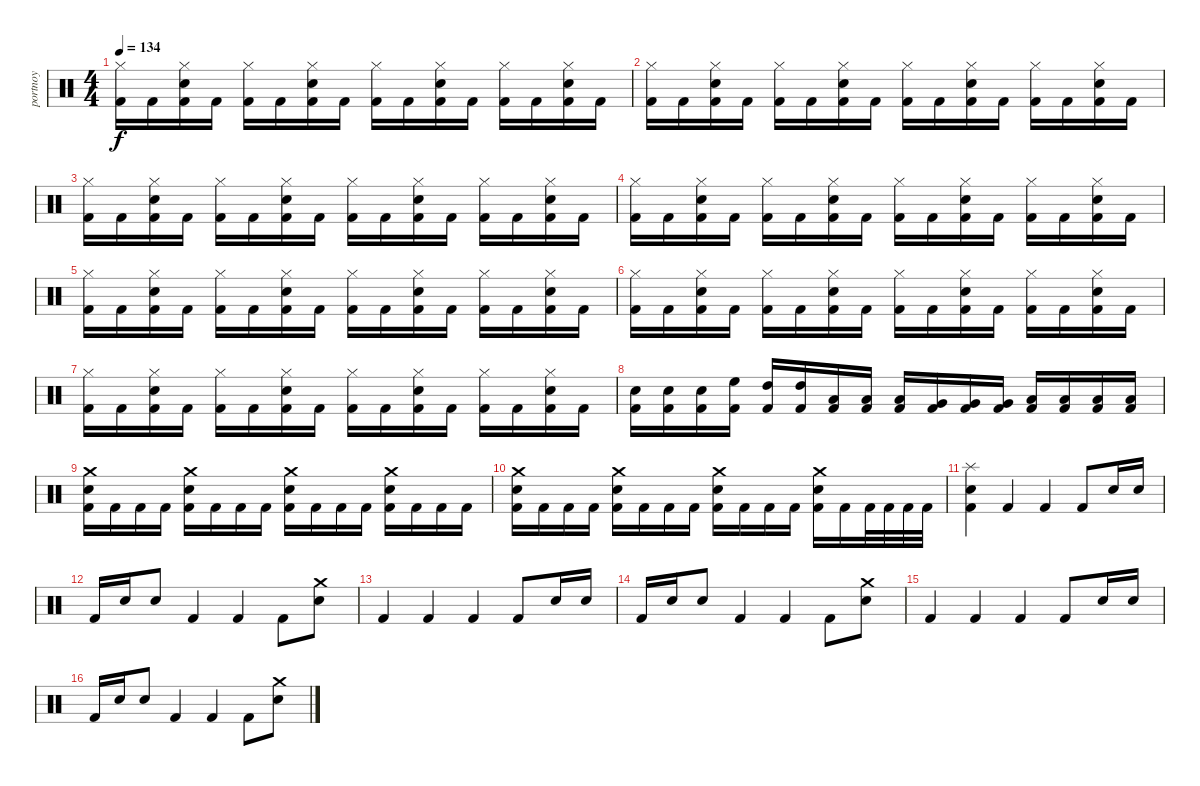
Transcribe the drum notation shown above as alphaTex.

\track ("portnoy" "portnoy") {instrument percussion}
\staff {score}
\articulation defaults
\ts (4 4)
\tempo 134
\clef neutral
\ks c
("Hi-Hat (closed)" "Kick (hit) 2").16{dy f} "Kick (hit) 2".16 ("Hi-Hat (closed)" "Snare (hit) 2" "Kick (hit) 2").16 "Kick (hit) 2".16 ("Hi-Hat (closed)" "Kick (hit) 2").16 "Kick (hit) 2".16 ("Hi-Hat (closed)" "Snare (hit) 2" "Kick (hit) 2").16 "Kick (hit) 2".16 ("Hi-Hat (closed)" "Kick (hit) 2").16 "Kick (hit) 2".16 ("Hi-Hat (closed)" "Snare (hit) 2" "Kick (hit) 2").16 "Kick (hit) 2".16 ("Hi-Hat (closed)" "Kick (hit) 2").16 "Kick (hit) 2".16 ("Hi-Hat (closed)" "Snare (hit) 2" "Kick (hit) 2").16 "Kick (hit) 2".16 |
("Hi-Hat (closed)" "Kick (hit) 2").16 "Kick (hit) 2".16 ("Hi-Hat (closed)" "Snare (hit) 2" "Kick (hit) 2").16 "Kick (hit) 2".16 ("Hi-Hat (closed)" "Kick (hit) 2").16 "Kick (hit) 2".16 ("Hi-Hat (closed)" "Snare (hit) 2" "Kick (hit) 2").16 "Kick (hit) 2".16 ("Hi-Hat (closed)" "Kick (hit) 2").16 "Kick (hit) 2".16 ("Hi-Hat (closed)" "Snare (hit) 2" "Kick (hit) 2").16 "Kick (hit) 2".16 ("Hi-Hat (closed)" "Kick (hit) 2").16 "Kick (hit) 2".16 ("Hi-Hat (closed)" "Snare (hit) 2" "Kick (hit) 2").16 "Kick (hit) 2".16 |
("Hi-Hat (closed)" "Kick (hit) 2").16 "Kick (hit) 2".16 ("Hi-Hat (closed)" "Snare (hit) 2" "Kick (hit) 2").16 "Kick (hit) 2".16 ("Hi-Hat (closed)" "Kick (hit) 2").16 "Kick (hit) 2".16 ("Hi-Hat (closed)" "Snare (hit) 2" "Kick (hit) 2").16 "Kick (hit) 2".16 ("Hi-Hat (closed)" "Kick (hit) 2").16 "Kick (hit) 2".16 ("Hi-Hat (closed)" "Snare (hit) 2" "Kick (hit) 2").16 "Kick (hit) 2".16 ("Hi-Hat (closed)" "Kick (hit) 2").16 "Kick (hit) 2".16 ("Hi-Hat (closed)" "Snare (hit) 2" "Kick (hit) 2").16 "Kick (hit) 2".16 |
("Hi-Hat (closed)" "Kick (hit) 2").16 "Kick (hit) 2".16 ("Hi-Hat (closed)" "Snare (hit) 2" "Kick (hit) 2").16 "Kick (hit) 2".16 ("Hi-Hat (closed)" "Kick (hit) 2").16 "Kick (hit) 2".16 ("Hi-Hat (closed)" "Snare (hit) 2" "Kick (hit) 2").16 "Kick (hit) 2".16 ("Hi-Hat (closed)" "Kick (hit) 2").16 "Kick (hit) 2".16 ("Hi-Hat (closed)" "Snare (hit) 2" "Kick (hit) 2").16 "Kick (hit) 2".16 ("Hi-Hat (closed)" "Kick (hit) 2").16 "Kick (hit) 2".16 ("Hi-Hat (closed)" "Snare (hit) 2" "Kick (hit) 2").16 "Kick (hit) 2".16 |
("Hi-Hat (closed)" "Kick (hit) 2").16 "Kick (hit) 2".16 ("Hi-Hat (closed)" "Snare (hit) 2" "Kick (hit) 2").16 "Kick (hit) 2".16 ("Hi-Hat (closed)" "Kick (hit) 2").16 "Kick (hit) 2".16 ("Hi-Hat (closed)" "Snare (hit) 2" "Kick (hit) 2").16 "Kick (hit) 2".16 ("Hi-Hat (closed)" "Kick (hit) 2").16 "Kick (hit) 2".16 ("Hi-Hat (closed)" "Snare (hit) 2" "Kick (hit) 2").16 "Kick (hit) 2".16 ("Hi-Hat (closed)" "Kick (hit) 2").16 "Kick (hit) 2".16 ("Hi-Hat (closed)" "Snare (hit) 2" "Kick (hit) 2").16 "Kick (hit) 2".16 |
("Hi-Hat (closed)" "Kick (hit) 2").16 "Kick (hit) 2".16 ("Hi-Hat (closed)" "Snare (hit) 2" "Kick (hit) 2").16 "Kick (hit) 2".16 ("Hi-Hat (closed)" "Kick (hit) 2").16 "Kick (hit) 2".16 ("Hi-Hat (closed)" "Snare (hit) 2" "Kick (hit) 2").16 "Kick (hit) 2".16 ("Hi-Hat (closed)" "Kick (hit) 2").16 "Kick (hit) 2".16 ("Hi-Hat (closed)" "Snare (hit) 2" "Kick (hit) 2").16 "Kick (hit) 2".16 ("Hi-Hat (closed)" "Kick (hit) 2").16 "Kick (hit) 2".16 ("Hi-Hat (closed)" "Snare (hit) 2" "Kick (hit) 2").16 "Kick (hit) 2".16 |
("Hi-Hat (closed)" "Kick (hit) 2").16 "Kick (hit) 2".16 ("Hi-Hat (closed)" "Snare (hit) 2" "Kick (hit) 2").16 "Kick (hit) 2".16 ("Hi-Hat (closed)" "Kick (hit) 2").16 "Kick (hit) 2".16 ("Hi-Hat (closed)" "Snare (hit) 2" "Kick (hit) 2").16 "Kick (hit) 2".16 ("Hi-Hat (closed)" "Kick (hit) 2").16 "Kick (hit) 2".16 ("Hi-Hat (closed)" "Snare (hit) 2" "Kick (hit) 2").16 "Kick (hit) 2".16 ("Hi-Hat (closed)" "Kick (hit) 2").16 "Kick (hit) 2".16 ("Hi-Hat (closed)" "Snare (hit) 2" "Kick (hit) 2").16 "Kick (hit) 2".16 |
("Snare (hit) 2" "Kick (hit) 2").16 ("Snare (hit) 2" "Kick (hit) 2").16 ("Snare (hit) 2" "Kick (hit) 2").16 ("High Floor Tom (hit)" "Kick (hit) 2").16 ("High Tom (hit)" "Kick (hit) 2").16 ("High Tom (hit)" "Kick (hit) 2").16 ("Low Tom (hit)" "Kick (hit) 2").16 ("Low Tom (hit)" "Kick (hit) 2").16 ("Low Tom (hit)" "Kick (hit) 2").16 ("Very Low Tom (hit)" "Kick (hit) 2").16 ("Very Low Tom (hit)" "Kick (hit) 2").16 ("Very Low Tom (hit)" "Kick (hit) 2").16 ("Low Floor Tom (hit)" "Kick (hit) 2").16 ("Low Floor Tom (hit)" "Kick (hit) 2").16 ("Low Floor Tom (hit)" "Kick (hit) 2").16 ("Low Floor Tom (hit)" "Kick (hit) 2").16 |
("Crash medium (hit)" "Snare (hit) 2" "Kick (hit) 2").16 "Kick (hit) 2".16 "Kick (hit) 2".16 "Kick (hit) 2".16 ("Crash medium (hit)" "Snare (hit) 2" "Kick (hit) 2").16 "Kick (hit) 2".16 "Kick (hit) 2".16 "Kick (hit) 2".16 ("Crash medium (hit)" "Snare (hit) 2" "Kick (hit) 2").16 "Kick (hit) 2".16 "Kick (hit) 2".16 "Kick (hit) 2".16 ("Crash medium (hit)" "Snare (hit) 2" "Kick (hit) 2").16 "Kick (hit) 2".16 "Kick (hit) 2".16 "Kick (hit) 2".16 |
("Crash medium (hit)" "Snare (hit) 2" "Kick (hit) 2").16 "Kick (hit) 2".16 "Kick (hit) 2".16 "Kick (hit) 2".16 ("Crash medium (hit)" "Snare (hit) 2" "Kick (hit) 2").16 "Kick (hit) 2".16 "Kick (hit) 2".16 "Kick (hit) 2".16 ("Crash medium (hit)" "Snare (hit) 2" "Kick (hit) 2").16 "Kick (hit) 2".16 "Kick (hit) 2".16 "Kick (hit) 2".16 ("Crash medium (hit)" "Snare (hit) 2" "Kick (hit) 2").16 "Kick (hit) 2".16 "Kick (hit) 2".32 "Kick (hit) 2".32 "Kick (hit) 2".32 "Kick (hit) 2".32 |
("Splash (hit)" "Snare (hit) 2" "Kick (hit) 2").4 "Kick (hit) 2".4 "Kick (hit) 2".4 "Kick (hit) 2".8 "Snare (hit) 2".16 "Snare (hit) 2".16 |
"Kick (hit) 2".16 "Snare (hit) 2".16 "Snare (hit) 2".8 "Kick (hit) 2".4 "Kick (hit) 2".4 "Kick (hit) 2".8 ("Crash medium (hit)" "Snare (hit) 2").8 |
"Kick (hit) 2".4 "Kick (hit) 2".4 "Kick (hit) 2".4 "Kick (hit) 2".8 "Snare (hit) 2".16 "Snare (hit) 2".16 |
"Kick (hit) 2".16 "Snare (hit) 2".16 "Snare (hit) 2".8 "Kick (hit) 2".4 "Kick (hit) 2".4 "Kick (hit) 2".8 ("Crash medium (hit)" "Snare (hit) 2").8 |
"Kick (hit) 2".4 "Kick (hit) 2".4 "Kick (hit) 2".4 "Kick (hit) 2".8 "Snare (hit) 2".16 "Snare (hit) 2".16 |
"Kick (hit) 2".16 "Snare (hit) 2".16 "Snare (hit) 2".8 "Kick (hit) 2".4 "Kick (hit) 2".4 "Kick (hit) 2".8 ("Crash medium (hit)" "Snare (hit) 2").8
